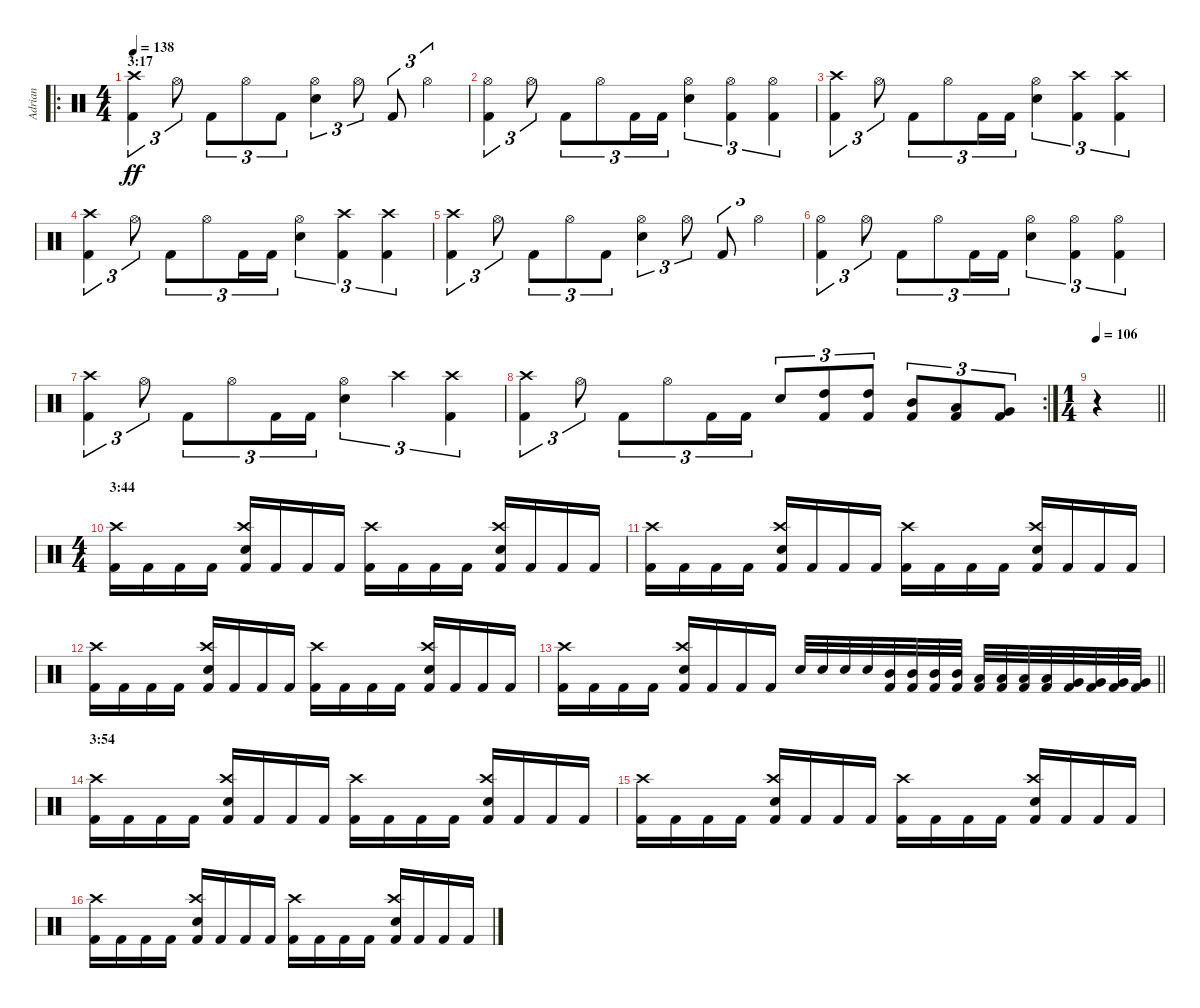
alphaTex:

\track ("Adrian" "Adrian") {instrument percussion}
\staff {score}
\articulation defaults
\ro
\ts (4 4)
\section ("" "3:17")
\tempo 138
\clef neutral
\ks c
("Kick (hit) 2" "Crash high (hit)").4{tu (3 2) dy ff} "Hi-Hat (open)".8{tu (3 2)} "Kick (hit) 2".8{tu (3 2)} "Hi-Hat (open)".8{tu (3 2)} "Kick (hit) 2".8{tu (3 2)} ("Snare (hit) 2" "Hi-Hat (open)").4{tu (3 2)} "Hi-Hat (open)".8{tu (3 2)} "Kick (hit) 2".8{tu (3 2)} "Hi-Hat (open)".4{tu (3 2)} |
("Kick (hit) 2" "Hi-Hat (open)").4{tu (3 2)} "Hi-Hat (open)".8{tu (3 2)} "Kick (hit) 2".8{tu (3 2)} "Hi-Hat (open)".8{tu (3 2)} "Kick (hit) 2".16{tu (3 2)} "Kick (hit) 2".16{tu (3 2)} ("Snare (hit) 2" "Hi-Hat (open)").4{tu (3 2)} ("Kick (hit) 2" "Hi-Hat (open)").4{tu (3 2)} ("Kick (hit) 2" "Hi-Hat (open)").4{tu (3 2)} |
("Kick (hit) 2" "Crash high (hit)").4{tu (3 2)} "Hi-Hat (open)".8{tu (3 2)} "Kick (hit) 2".8{tu (3 2)} "Hi-Hat (open)".8{tu (3 2)} "Kick (hit) 2".16{tu (3 2)} "Kick (hit) 2".16{tu (3 2)} ("Snare (hit) 2" "Hi-Hat (open)").4{tu (3 2)} ("Kick (hit) 2" "Crash high (hit)").4{tu (3 2)} ("Kick (hit) 2" "Crash high (hit)").4{tu (3 2)} |
("Kick (hit) 2" "Crash high (hit)").4{tu (3 2)} "Hi-Hat (open)".8{tu (3 2)} "Kick (hit) 2".8{tu (3 2)} "Hi-Hat (open)".8{tu (3 2)} "Kick (hit) 2".16{tu (3 2)} "Kick (hit) 2".16{tu (3 2)} ("Snare (hit) 2" "Hi-Hat (open)").4{tu (3 2)} ("Kick (hit) 2" "Crash high (hit)").4{tu (3 2)} ("Kick (hit) 2" "Crash high (hit)").4{tu (3 2)} |
("Kick (hit) 2" "Crash high (hit)").4{tu (3 2)} "Hi-Hat (open)".8{tu (3 2)} "Kick (hit) 2".8{tu (3 2)} "Hi-Hat (open)".8{tu (3 2)} "Kick (hit) 2".8{tu (3 2)} ("Snare (hit) 2" "Hi-Hat (open)").4{tu (3 2)} "Hi-Hat (open)".8{tu (3 2)} "Kick (hit) 2".8{tu (3 2)} "Hi-Hat (open)".4{tu (3 2)} |
("Kick (hit) 2" "Hi-Hat (open)").4{tu (3 2)} "Hi-Hat (open)".8{tu (3 2)} "Kick (hit) 2".8{tu (3 2)} "Hi-Hat (open)".8{tu (3 2)} "Kick (hit) 2".16{tu (3 2)} "Kick (hit) 2".16{tu (3 2)} ("Snare (hit) 2" "Hi-Hat (open)").4{tu (3 2)} ("Kick (hit) 2" "Hi-Hat (open)").4{tu (3 2)} ("Kick (hit) 2" "Hi-Hat (open)").4{tu (3 2)} |
("Kick (hit) 2" "Crash high (hit)").4{tu (3 2)} "Hi-Hat (open)".8{tu (3 2)} "Kick (hit) 2".8{tu (3 2)} "Hi-Hat (open)".8{tu (3 2)} "Kick (hit) 2".16{tu (3 2)} "Kick (hit) 2".16{tu (3 2)} ("Snare (hit) 2" "Hi-Hat (open)").4{tu (3 2)} "Crash high (hit)".4{tu (3 2)} ("Kick (hit) 2" "Crash high (hit)").4{tu (3 2)} |
\rc 2
("Kick (hit) 2" "Crash high (hit)").4{tu (3 2)} "Hi-Hat (open)".8{tu (3 2)} "Kick (hit) 2".8{tu (3 2)} "Hi-Hat (open)".8{tu (3 2)} "Kick (hit) 2".16{tu (3 2)} "Kick (hit) 2".16{tu (3 2)} "Snare (hit) 2".8{tu (3 2)} ("Kick (hit) 2" "High Tom (hit)").8{tu (3 2)} ("Kick (hit) 2" "High Tom (hit)").8{tu (3 2)} ("Kick (hit) 2" "Mid Tom (hit)").8{tu (3 2)} ("Kick (hit) 2" "Low Tom (hit)").8{tu (3 2)} ("Kick (hit) 2" "Very Low Tom (hit)").8{tu (3 2)} |
\ts (1 4)
\tempo 106
\barLineRight lightlight
r.4 |
\ts (4 4)
\section ("" "3:44")
("Kick (hit) 2" "Crash high (hit)").16 "Kick (hit) 2".16 "Kick (hit) 2".16 "Kick (hit) 2".16 ("Kick (hit) 2" "Snare (hit) 2" "Crash high (hit)").16 "Kick (hit) 2".16 "Kick (hit) 2".16 "Kick (hit) 2".16 ("Kick (hit) 2" "Crash high (hit)").16 "Kick (hit) 2".16 "Kick (hit) 2".16 "Kick (hit) 2".16 ("Kick (hit) 2" "Snare (hit) 2" "Crash high (hit)").16 "Kick (hit) 2".16 "Kick (hit) 2".16 "Kick (hit) 2".16 |
("Kick (hit) 2" "Crash high (hit)").16 "Kick (hit) 2".16 "Kick (hit) 2".16 "Kick (hit) 2".16 ("Kick (hit) 2" "Snare (hit) 2" "Crash high (hit)").16 "Kick (hit) 2".16 "Kick (hit) 2".16 "Kick (hit) 2".16 ("Kick (hit) 2" "Crash high (hit)").16 "Kick (hit) 2".16 "Kick (hit) 2".16 "Kick (hit) 2".16 ("Kick (hit) 2" "Snare (hit) 2" "Crash high (hit)").16 "Kick (hit) 2".16 "Kick (hit) 2".16 "Kick (hit) 2".16 |
("Kick (hit) 2" "Crash high (hit)").16 "Kick (hit) 2".16 "Kick (hit) 2".16 "Kick (hit) 2".16 ("Kick (hit) 2" "Snare (hit) 2" "Crash high (hit)").16 "Kick (hit) 2".16 "Kick (hit) 2".16 "Kick (hit) 2".16 ("Kick (hit) 2" "Crash high (hit)").16 "Kick (hit) 2".16 "Kick (hit) 2".16 "Kick (hit) 2".16 ("Kick (hit) 2" "Snare (hit) 2" "Crash high (hit)").16 "Kick (hit) 2".16 "Kick (hit) 2".16 "Kick (hit) 2".16 |
\barLineRight lightlight
("Kick (hit) 2" "Crash high (hit)").16 "Kick (hit) 2".16 "Kick (hit) 2".16 "Kick (hit) 2".16 ("Kick (hit) 2" "Snare (hit) 2" "Crash high (hit)").16 "Kick (hit) 2".16 "Kick (hit) 2".16 "Kick (hit) 2".16 "Snare (hit) 2".32 "Snare (hit) 2".32 "Snare (hit) 2".32 "Snare (hit) 2".32 ("Kick (hit) 2" "Mid Tom (hit)").32 ("Kick (hit) 2" "Mid Tom (hit)").32 ("Kick (hit) 2" "Mid Tom (hit)").32 ("Kick (hit) 2" "Mid Tom (hit)").32 ("Kick (hit) 2" "Low Tom (hit)").32 ("Kick (hit) 2" "Low Tom (hit)").32 ("Kick (hit) 2" "Low Tom (hit)").32 ("Kick (hit) 2" "Low Tom (hit)").32 ("Kick (hit) 2" "Very Low Tom (hit)").32 ("Kick (hit) 2" "Very Low Tom (hit)").32 ("Kick (hit) 2" "Very Low Tom (hit)").32 ("Kick (hit) 2" "Very Low Tom (hit)").32 |
\section ("" "3:54")
("Kick (hit) 2" "Crash high (hit)").16 "Kick (hit) 2".16 "Kick (hit) 2".16 "Kick (hit) 2".16 ("Kick (hit) 2" "Snare (hit) 2" "Crash high (hit)").16 "Kick (hit) 2".16 "Kick (hit) 2".16 "Kick (hit) 2".16 ("Kick (hit) 2" "Crash high (hit)").16 "Kick (hit) 2".16 "Kick (hit) 2".16 "Kick (hit) 2".16 ("Kick (hit) 2" "Snare (hit) 2" "Crash high (hit)").16 "Kick (hit) 2".16 "Kick (hit) 2".16 "Kick (hit) 2".16 |
("Kick (hit) 2" "Crash high (hit)").16 "Kick (hit) 2".16 "Kick (hit) 2".16 "Kick (hit) 2".16 ("Kick (hit) 2" "Snare (hit) 2" "Crash high (hit)").16 "Kick (hit) 2".16 "Kick (hit) 2".16 "Kick (hit) 2".16 ("Kick (hit) 2" "Crash high (hit)").16 "Kick (hit) 2".16 "Kick (hit) 2".16 "Kick (hit) 2".16 ("Kick (hit) 2" "Snare (hit) 2" "Crash high (hit)").16 "Kick (hit) 2".16 "Kick (hit) 2".16 "Kick (hit) 2".16 |
("Kick (hit) 2" "Crash high (hit)").16 "Kick (hit) 2".16 "Kick (hit) 2".16 "Kick (hit) 2".16 ("Kick (hit) 2" "Snare (hit) 2" "Crash high (hit)").16 "Kick (hit) 2".16 "Kick (hit) 2".16 "Kick (hit) 2".16 ("Kick (hit) 2" "Crash high (hit)").16 "Kick (hit) 2".16 "Kick (hit) 2".16 "Kick (hit) 2".16 ("Kick (hit) 2" "Snare (hit) 2" "Crash high (hit)").16 "Kick (hit) 2".16 "Kick (hit) 2".16 "Kick (hit) 2".16
